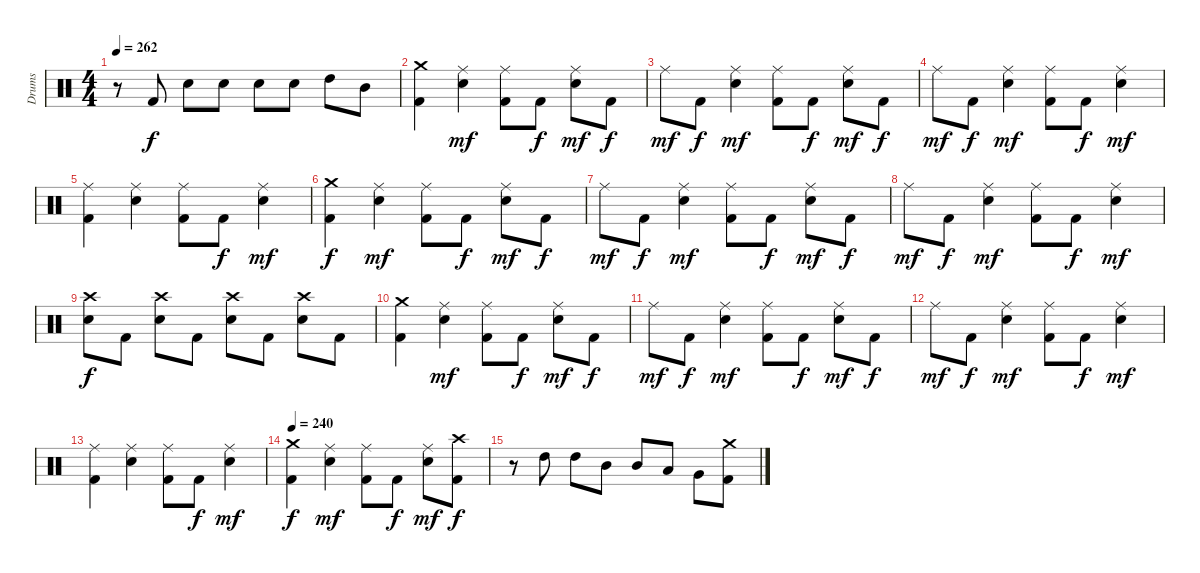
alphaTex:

\track ("Drums" "Drums") {instrument percussion}
\staff {score}
\articulation defaults
\ts (4 4)
\tempo 262
\clef neutral
\ks c
r.8{dy f} "Kick (hit) 2".8 "Snare (hit) 2".8 "Snare (hit) 2".8 "Snare (hit) 2".8 "Snare (hit) 2".8 "High Tom (hit)".8 "Mid Tom (hit)".8 |
("Crash medium (hit)" "Kick (hit) 2").4 ("Ride (middle)" "Snare (hit) 2").4{dy mf} ("Ride (middle)" "Kick (hit) 2").8 "Kick (hit) 2".8{dy f} ("Ride (middle)" "Snare (hit) 2").8{dy mf} "Kick (hit) 2".8{dy f} |
"Ride (middle)".8{dy mf} "Kick (hit) 2".8{dy f} ("Ride (middle)" "Snare (hit) 2").4{dy mf} ("Ride (middle)" "Kick (hit) 2").8 "Kick (hit) 2".8{dy f} ("Ride (middle)" "Snare (hit) 2").8{dy mf} "Kick (hit) 2".8{dy f} |
"Ride (middle)".8{dy mf} "Kick (hit) 2".8{dy f} ("Ride (middle)" "Snare (hit) 2").4{dy mf} ("Ride (middle)" "Kick (hit) 2").8 "Kick (hit) 2".8{dy f} ("Ride (middle)" "Snare (hit) 2").4{dy mf} |
("Ride (middle)" "Kick (hit) 2").4 ("Ride (middle)" "Snare (hit) 2").4 ("Ride (middle)" "Kick (hit) 2").8 "Kick (hit) 2".8{dy f} ("Ride (middle)" "Snare (hit) 2").4{dy mf} |
("Crash medium (hit)" "Kick (hit) 2").4{dy f} ("Ride (middle)" "Snare (hit) 2").4{dy mf} ("Ride (middle)" "Kick (hit) 2").8 "Kick (hit) 2".8{dy f} ("Ride (middle)" "Snare (hit) 2").8{dy mf} "Kick (hit) 2".8{dy f} |
"Ride (middle)".8{dy mf} "Kick (hit) 2".8{dy f} ("Ride (middle)" "Snare (hit) 2").4{dy mf} ("Ride (middle)" "Kick (hit) 2").8 "Kick (hit) 2".8{dy f} ("Ride (middle)" "Snare (hit) 2").8{dy mf} "Kick (hit) 2".8{dy f} |
"Ride (middle)".8{dy mf} "Kick (hit) 2".8{dy f} ("Ride (middle)" "Snare (hit) 2").4{dy mf} ("Ride (middle)" "Kick (hit) 2").8 "Kick (hit) 2".8{dy f} ("Ride (middle)" "Snare (hit) 2").4{dy mf} |
("Crash high (hit)" "Snare (hit) 2").8{dy f} "Kick (hit) 2".8 ("Crash high (hit)" "Snare (hit) 2").8 "Kick (hit) 2".8 ("Crash high (hit)" "Snare (hit) 2").8 "Kick (hit) 2".8 ("Crash high (hit)" "Snare (hit) 2").8 "Kick (hit) 2".8 |
("Crash medium (hit)" "Kick (hit) 2").4 ("Ride (middle)" "Snare (hit) 2").4{dy mf} ("Ride (middle)" "Kick (hit) 2").8 "Kick (hit) 2".8{dy f} ("Ride (middle)" "Snare (hit) 2").8{dy mf} "Kick (hit) 2".8{dy f} |
"Ride (middle)".8{dy mf} "Kick (hit) 2".8{dy f} ("Ride (middle)" "Snare (hit) 2").4{dy mf} ("Ride (middle)" "Kick (hit) 2").8 "Kick (hit) 2".8{dy f} ("Ride (middle)" "Snare (hit) 2").8{dy mf} "Kick (hit) 2".8{dy f} |
"Ride (middle)".8{dy mf} "Kick (hit) 2".8{dy f} ("Ride (middle)" "Snare (hit) 2").4{dy mf} ("Ride (middle)" "Kick (hit) 2").8 "Kick (hit) 2".8{dy f} ("Ride (middle)" "Snare (hit) 2").4{dy mf} |
("Ride (middle)" "Kick (hit) 2").4 ("Ride (middle)" "Snare (hit) 2").4 ("Ride (middle)" "Kick (hit) 2").8 "Kick (hit) 2".8{dy f} ("Ride (middle)" "Snare (hit) 2").4{dy mf} |
\tempo 240
("Crash medium (hit)" "Kick (hit) 2").4{dy f} ("Ride (middle)" "Snare (hit) 2").4{dy mf} ("Ride (middle)" "Kick (hit) 2").8 "Kick (hit) 2".8{dy f} ("Ride (middle)" "Snare (hit) 2").8{dy mf} ("Crash high (hit)" "Kick (hit) 2").8{dy f} |
r.8 "High Tom (hit)".8 "High Tom (hit)".8 "Mid Tom (hit)".8 "Mid Tom (hit)".8 "Low Tom (hit)".8 "Very Low Tom (hit)".8 ("Crash medium (hit)" "Kick (hit) 2").8
